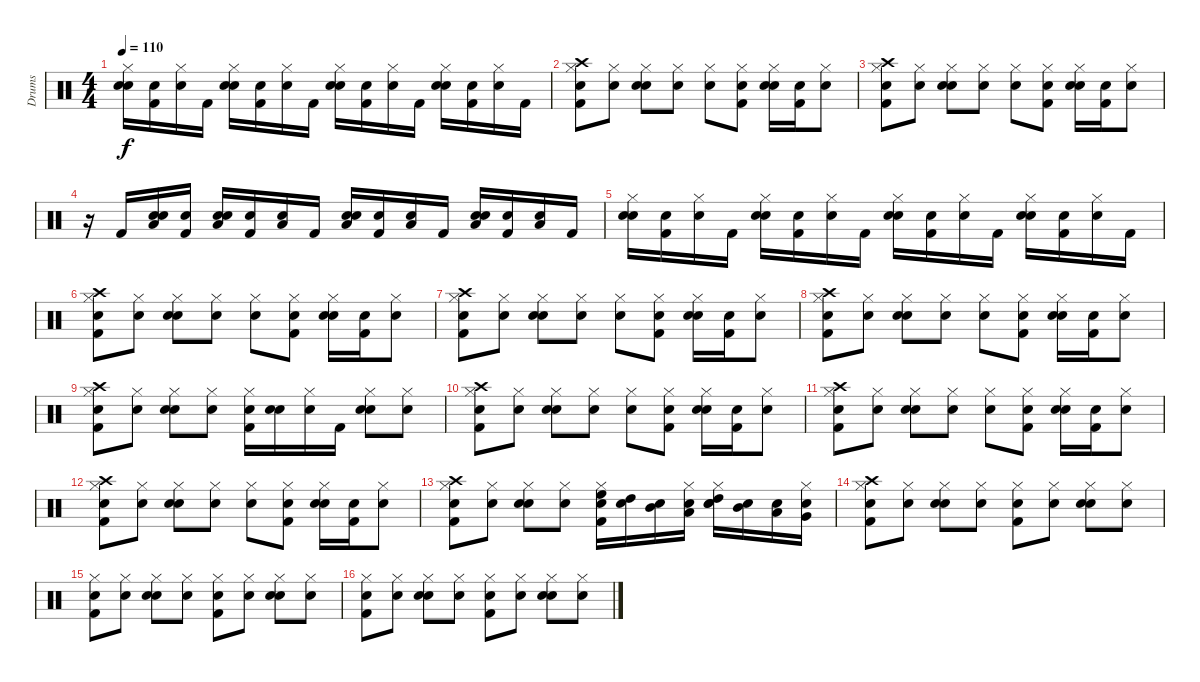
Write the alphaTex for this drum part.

\track ("Drums" "Drums") {instrument percussion}
\staff {score}
\articulation defaults
\ts (4 4)
\tempo 110
\clef neutral
\ks c
("Snare (hit)" "Snare (hit) 2" "Hi-Hat (closed)").16{dy f} ("Snare (hit)" "Kick (hit) 2").16 ("Snare (hit)" "Hi-Hat (closed)").16 "Kick (hit) 2".16 ("Snare (hit)" "Snare (hit) 2" "Hi-Hat (closed)").16 ("Snare (hit)" "Kick (hit) 2").16 ("Snare (hit)" "Hi-Hat (closed)").16 "Kick (hit) 2".16 ("Snare (hit)" "Snare (hit) 2" "Hi-Hat (closed)").16 ("Snare (hit)" "Kick (hit) 2").16 ("Snare (hit)" "Hi-Hat (closed)").16 "Kick (hit) 2".16 ("Snare (hit)" "Snare (hit) 2" "Hi-Hat (closed)").16 ("Snare (hit)" "Kick (hit) 2").16 ("Snare (hit)" "Hi-Hat (closed)").16 "Kick (hit) 2".16 |
("Snare (hit)" "Kick (hit) 2" "Hi-Hat (closed)" "Crash high (hit)").8 ("Snare (hit)" "Hi-Hat (closed)").8 ("Snare (hit)" "Snare (hit) 2" "Hi-Hat (closed)").8 ("Snare (hit)" "Hi-Hat (closed)").8 ("Snare (hit)" "Hi-Hat (closed)").8 ("Snare (hit)" "Kick (hit) 2" "Hi-Hat (closed)").8 ("Snare (hit)" "Snare (hit) 2" "Hi-Hat (closed)").16 ("Snare (hit)" "Kick (hit) 2").16 ("Snare (hit)" "Hi-Hat (closed)").8 |
("Snare (hit)" "Kick (hit) 2" "Hi-Hat (closed)" "Crash high (hit)").8 ("Snare (hit)" "Hi-Hat (closed)").8 ("Snare (hit)" "Snare (hit) 2" "Hi-Hat (closed)").8 ("Snare (hit)" "Hi-Hat (closed)").8 ("Snare (hit)" "Hi-Hat (closed)").8 ("Snare (hit)" "Kick (hit) 2" "Hi-Hat (closed)").8 ("Snare (hit)" "Snare (hit) 2" "Hi-Hat (closed)").16 ("Snare (hit)" "Kick (hit) 2").16 ("Snare (hit)" "Hi-Hat (closed)").8 |
r.16 "Kick (hit) 2".16 ("Snare (hit)" "Snare (hit) 2" "Low Floor Tom (hit)").16 ("Snare (hit)" "Kick (hit) 2").16 ("Snare (hit)" "Snare (hit) 2" "Low Floor Tom (hit)").16 ("Snare (hit)" "Kick (hit) 2").16 ("Snare (hit)" "Low Floor Tom (hit)").16 "Kick (hit) 2".16 ("Snare (hit)" "Snare (hit) 2" "Low Floor Tom (hit)").16 ("Snare (hit)" "Kick (hit) 2").16 ("Snare (hit)" "Low Floor Tom (hit)").16 "Kick (hit) 2".16 ("Snare (hit)" "Snare (hit) 2" "Low Floor Tom (hit)").16 ("Snare (hit)" "Kick (hit) 2").16 ("Snare (hit)" "Low Floor Tom (hit)").16 "Kick (hit) 2".16 |
("Snare (hit)" "Snare (hit) 2" "Hi-Hat (closed)").16 ("Snare (hit)" "Kick (hit) 2").16 ("Snare (hit)" "Hi-Hat (closed)").16 "Kick (hit) 2".16 ("Snare (hit)" "Snare (hit) 2" "Hi-Hat (closed)").16 ("Snare (hit)" "Kick (hit) 2").16 ("Snare (hit)" "Hi-Hat (closed)").16 "Kick (hit) 2".16 ("Snare (hit)" "Snare (hit) 2" "Hi-Hat (closed)").16 ("Snare (hit)" "Kick (hit) 2").16 ("Snare (hit)" "Hi-Hat (closed)").16 "Kick (hit) 2".16 ("Snare (hit)" "Snare (hit) 2" "Hi-Hat (closed)").16 ("Snare (hit)" "Kick (hit) 2").16 ("Snare (hit)" "Hi-Hat (closed)").16 "Kick (hit) 2".16 |
("Snare (hit)" "Kick (hit) 2" "Hi-Hat (closed)" "Crash high (hit)").8 ("Snare (hit)" "Hi-Hat (closed)").8 ("Snare (hit)" "Snare (hit) 2" "Hi-Hat (closed)").8 ("Snare (hit)" "Hi-Hat (closed)").8 ("Snare (hit)" "Hi-Hat (closed)").8 ("Snare (hit)" "Kick (hit) 2" "Hi-Hat (closed)").8 ("Snare (hit)" "Snare (hit) 2" "Hi-Hat (closed)").16 ("Snare (hit)" "Kick (hit) 2").16 ("Snare (hit)" "Hi-Hat (closed)").8 |
("Snare (hit)" "Kick (hit) 2" "Hi-Hat (closed)" "Crash high (hit)").8 ("Snare (hit)" "Hi-Hat (closed)").8 ("Snare (hit)" "Snare (hit) 2" "Hi-Hat (closed)").8 ("Snare (hit)" "Hi-Hat (closed)").8 ("Snare (hit)" "Hi-Hat (closed)").8 ("Snare (hit)" "Kick (hit) 2" "Hi-Hat (closed)").8 ("Snare (hit)" "Snare (hit) 2" "Hi-Hat (closed)").16 ("Snare (hit)" "Kick (hit) 2").16 ("Snare (hit)" "Hi-Hat (closed)").8 |
("Snare (hit)" "Kick (hit) 2" "Hi-Hat (closed)" "Crash high (hit)").8 ("Snare (hit)" "Hi-Hat (closed)").8 ("Snare (hit)" "Snare (hit) 2" "Hi-Hat (closed)").8 ("Snare (hit)" "Hi-Hat (closed)").8 ("Snare (hit)" "Hi-Hat (closed)").8 ("Snare (hit)" "Kick (hit) 2" "Hi-Hat (closed)").8 ("Snare (hit)" "Snare (hit) 2" "Hi-Hat (closed)").16 ("Snare (hit)" "Kick (hit) 2").16 ("Snare (hit)" "Hi-Hat (closed)").8 |
("Snare (hit)" "Kick (hit) 2" "Hi-Hat (closed)" "Crash high (hit)").8 ("Snare (hit)" "Hi-Hat (closed)").8 ("Snare (hit)" "Snare (hit) 2" "Hi-Hat (closed)").8 ("Snare (hit)" "Hi-Hat (closed)").8 ("Snare (hit)" "Kick (hit) 2" "Hi-Hat (closed)").16 ("Snare (hit)" "Snare (hit) 2").16 ("Snare (hit)" "Hi-Hat (closed)").16 "Kick (hit) 2".16 ("Snare (hit)" "Snare (hit) 2" "Hi-Hat (closed)").8 ("Snare (hit)" "Hi-Hat (closed)").8 |
("Snare (hit)" "Kick (hit) 2" "Hi-Hat (closed)" "Crash high (hit)").8 ("Snare (hit)" "Hi-Hat (closed)").8 ("Snare (hit)" "Snare (hit) 2" "Hi-Hat (closed)").8 ("Snare (hit)" "Hi-Hat (closed)").8 ("Snare (hit)" "Hi-Hat (closed)").8 ("Snare (hit)" "Kick (hit) 2" "Hi-Hat (closed)").8 ("Snare (hit)" "Snare (hit) 2" "Hi-Hat (closed)").16 ("Snare (hit)" "Kick (hit) 2").16 ("Snare (hit)" "Hi-Hat (closed)").8 |
("Snare (hit)" "Kick (hit) 2" "Hi-Hat (closed)" "Crash high (hit)").8 ("Snare (hit)" "Hi-Hat (closed)").8 ("Snare (hit)" "Snare (hit) 2" "Hi-Hat (closed)").8 ("Snare (hit)" "Hi-Hat (closed)").8 ("Snare (hit)" "Hi-Hat (closed)").8 ("Snare (hit)" "Kick (hit) 2" "Hi-Hat (closed)").8 ("Snare (hit)" "Snare (hit) 2" "Hi-Hat (closed)").16 ("Snare (hit)" "Kick (hit) 2").16 ("Snare (hit)" "Hi-Hat (closed)").8 |
("Snare (hit)" "Kick (hit) 2" "Hi-Hat (closed)" "Crash high (hit)").8 ("Snare (hit)" "Hi-Hat (closed)").8 ("Snare (hit)" "Snare (hit) 2" "Hi-Hat (closed)").8 ("Snare (hit)" "Hi-Hat (closed)").8 ("Snare (hit)" "Hi-Hat (closed)").8 ("Snare (hit)" "Kick (hit) 2" "Hi-Hat (closed)").8 ("Snare (hit)" "Snare (hit) 2" "Hi-Hat (closed)").16 ("Snare (hit)" "Kick (hit) 2").16 ("Snare (hit)" "Hi-Hat (closed)").8 |
("Snare (hit)" "Kick (hit) 2" "Hi-Hat (closed)" "Crash high (hit)").8 ("Snare (hit)" "Hi-Hat (closed)").8 ("Snare (hit)" "Snare (hit) 2" "Hi-Hat (closed)").8 ("Snare (hit)" "Hi-Hat (closed)").8 ("Snare (hit)" "Kick (hit) 2" "Hi-Hat (closed)" "High Floor Tom (hit)").16 ("Snare (hit)" "High Tom (hit)").16 ("Snare (hit)" "Mid Tom (hit)").16 ("Snare (hit)" "Hi-Hat (closed)" "Low Tom (hit)").16 ("Snare (hit)" "Snare (hit) 2" "Hi-Hat (closed)" "High Tom (hit)").16 ("Snare (hit)" "Mid Tom (hit)").16 ("Snare (hit)" "Low Tom (hit)").16 ("Snare (hit)" "Hi-Hat (closed)" "Very Low Tom (hit)").16 |
("Snare (hit)" "Kick (hit) 2" "Hi-Hat (closed)" "Crash high (hit)").8 ("Snare (hit)" "Hi-Hat (closed)").8 ("Snare (hit)" "Snare (hit) 2" "Hi-Hat (closed)").8 ("Snare (hit)" "Hi-Hat (closed)").8 ("Snare (hit)" "Kick (hit) 2" "Hi-Hat (closed)").8 ("Snare (hit)" "Hi-Hat (closed)").8 ("Snare (hit)" "Snare (hit) 2" "Hi-Hat (closed)").8 ("Snare (hit)" "Hi-Hat (closed)").8 |
("Snare (hit)" "Kick (hit) 2" "Hi-Hat (closed)").8 ("Snare (hit)" "Hi-Hat (closed)").8 ("Snare (hit)" "Snare (hit) 2" "Hi-Hat (closed)").8 ("Snare (hit)" "Hi-Hat (closed)").8 ("Snare (hit)" "Kick (hit) 2" "Hi-Hat (closed)").8 ("Snare (hit)" "Hi-Hat (closed)").8 ("Snare (hit)" "Snare (hit) 2" "Hi-Hat (closed)").8 ("Snare (hit)" "Hi-Hat (closed)").8 |
("Snare (hit)" "Kick (hit) 2" "Hi-Hat (closed)").8 ("Snare (hit)" "Hi-Hat (closed)").8 ("Snare (hit)" "Snare (hit) 2" "Hi-Hat (closed)").8 ("Snare (hit)" "Hi-Hat (closed)").8 ("Snare (hit)" "Kick (hit) 2" "Hi-Hat (closed)").8 ("Snare (hit)" "Hi-Hat (closed)").8 ("Snare (hit)" "Snare (hit) 2" "Hi-Hat (closed)").8 ("Snare (hit)" "Hi-Hat (closed)").8
